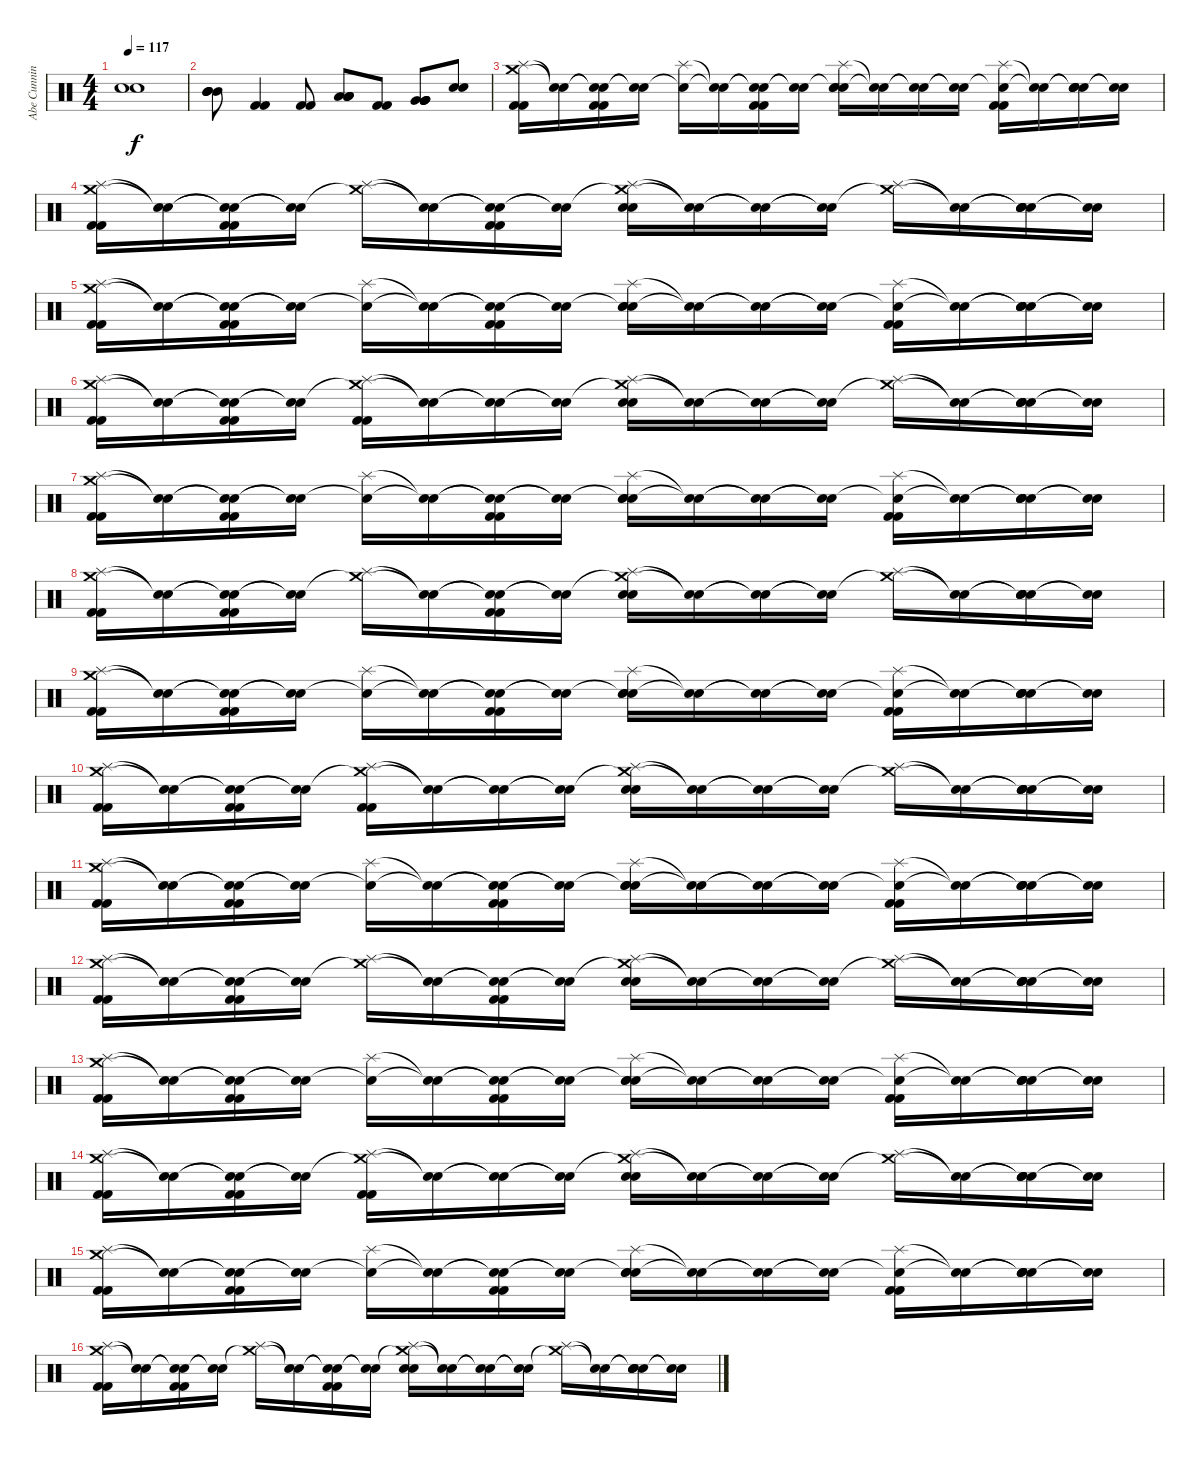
\track ("Abe Cunningham" "Abe Cunnin") {instrument percussion}
\staff {score}
\articulation defaults
\ts (4 4)
\tempo 117
\clef neutral
\ks c
("Snare (hit)"{t} "Snare (hit)"{t}).1{dy f} |
("Mid Tom (hit)" "Mid Tom (hit)" "Mid Tom (hit)" "Mid Tom (hit)").8 ("Kick (hit) 2" "Kick (hit) 2").4 ("Kick (hit) 2" "Kick (hit) 2").8 ("Low Tom (hit)" "Low Tom (hit)" "Low Tom (hit)" "Low Tom (hit)").8 ("Kick (hit) 2" "Kick (hit) 2").8 ("Very Low Tom (hit)" "Very Low Tom (hit)" "Very Low Tom (hit)" "Very Low Tom (hit)").8 ("Electric Snare (hit)" "Electric Snare (hit)").8 |
("Splash (hit)" "Crash medium (hit)" "Kick (hit) 2" "Kick (hit) 2").16 ("Snare (hit)"{t} "Snare (hit)"{t}).16 ("Snare (hit)"{t} "Snare (hit)"{t} "Kick (hit) 2" "Kick (hit) 2").16 ("Snare (hit)"{t} "Snare (hit)"{t}).16 ("Splash (hit)" "Snare (hit)"{t}).16 ("Snare (hit)"{t} "Snare (hit)"{t}).16 ("Snare (hit)"{t} "Snare (hit)"{t} "Kick (hit) 2" "Kick (hit) 2").16 ("Snare (hit)"{t} "Snare (hit)"{t}).16 ("Splash (hit)" "Snare (hit)"{t} "Electric Snare (hit)" "Electric Snare (hit)").16 ("Snare (hit)"{t} "Snare (hit)"{t}).16 ("Snare (hit)"{t} "Snare (hit)"{t}).16 ("Snare (hit)"{t} "Snare (hit)"{t}).16 ("Splash (hit)" "Snare (hit)"{t} "Kick (hit) 2" "Kick (hit) 2").16 ("Snare (hit)"{t} "Snare (hit)"{t}).16 ("Snare (hit)"{t} "Snare (hit)"{t} "Electric Snare (hit)" "Electric Snare (hit)").16 ("Snare (hit)"{t} "Snare (hit)"{t}).16 |
("Splash (hit)" "Crash medium (hit)" "Kick (hit) 2" "Kick (hit) 2").16 ("Snare (hit)"{t} "Snare (hit)"{t}).16 ("Snare (hit)"{t} "Snare (hit)"{t} "Kick (hit) 2" "Kick (hit) 2").16 ("Snare (hit)"{t} "Snare (hit)"{t}).16 ("Splash (hit)" "Crash medium (hit)"{t}).16 ("Snare (hit)"{t} "Snare (hit)"{t}).16 ("Snare (hit)"{t} "Snare (hit)"{t} "Kick (hit) 2" "Kick (hit) 2").16 ("Snare (hit)"{t} "Snare (hit)"{t}).16 ("Splash (hit)" "Crash medium (hit)"{t} "Electric Snare (hit)" "Electric Snare (hit)").16 ("Snare (hit)"{t} "Snare (hit)"{t}).16 ("Snare (hit)"{t} "Snare (hit)"{t}).16 ("Snare (hit)"{t} "Snare (hit)"{t}).16 ("Splash (hit)" "Crash medium (hit)"{t}).16 ("Snare (hit)"{t} "Snare (hit)"{t}).16 ("Snare (hit)"{t} "Snare (hit)"{t} "Electric Snare (hit)" "Electric Snare (hit)").16 ("Snare (hit)"{t} "Snare (hit)"{t}).16 |
("Splash (hit)" "Crash medium (hit)" "Kick (hit) 2" "Kick (hit) 2").16 ("Snare (hit)"{t} "Snare (hit)"{t}).16 ("Snare (hit)"{t} "Snare (hit)"{t} "Kick (hit) 2" "Kick (hit) 2").16 ("Snare (hit)"{t} "Snare (hit)"{t}).16 ("Splash (hit)" "Snare (hit)"{t}).16 ("Snare (hit)"{t} "Snare (hit)"{t}).16 ("Snare (hit)"{t} "Snare (hit)"{t} "Kick (hit) 2" "Kick (hit) 2").16 ("Snare (hit)"{t} "Snare (hit)"{t}).16 ("Splash (hit)" "Snare (hit)"{t} "Electric Snare (hit)" "Electric Snare (hit)").16 ("Snare (hit)"{t} "Snare (hit)"{t}).16 ("Snare (hit)"{t} "Snare (hit)"{t}).16 ("Snare (hit)"{t} "Snare (hit)"{t}).16 ("Splash (hit)" "Snare (hit)"{t} "Kick (hit) 2" "Kick (hit) 2").16 ("Snare (hit)"{t} "Snare (hit)"{t}).16 ("Snare (hit)"{t} "Snare (hit)"{t} "Electric Snare (hit)" "Electric Snare (hit)").16 ("Snare (hit)"{t} "Snare (hit)"{t}).16 |
("Splash (hit)" "Crash medium (hit)" "Kick (hit) 2" "Kick (hit) 2").16 ("Snare (hit)"{t} "Snare (hit)"{t}).16 ("Snare (hit)"{t} "Snare (hit)"{t} "Kick (hit) 2" "Kick (hit) 2").16 ("Snare (hit)"{t} "Snare (hit)"{t}).16 ("Splash (hit)" "Crash medium (hit)"{t} "Kick (hit) 2" "Kick (hit) 2").16 ("Snare (hit)"{t} "Snare (hit)"{t}).16 ("Snare (hit)"{t} "Snare (hit)"{t}).16 ("Snare (hit)"{t} "Snare (hit)"{t}).16 ("Splash (hit)" "Crash medium (hit)"{t} "Electric Snare (hit)" "Electric Snare (hit)").16 ("Snare (hit)"{t} "Snare (hit)"{t}).16 ("Snare (hit)"{t} "Snare (hit)"{t}).16 ("Snare (hit)"{t} "Snare (hit)"{t}).16 ("Splash (hit)" "Crash medium (hit)"{t}).16 ("Snare (hit)"{t} "Snare (hit)"{t}).16 ("Snare (hit)"{t} "Snare (hit)"{t} "Electric Snare (hit)" "Electric Snare (hit)").16 ("Snare (hit)"{t} "Snare (hit)"{t}).16 |
("Splash (hit)" "Crash medium (hit)" "Kick (hit) 2" "Kick (hit) 2").16 ("Snare (hit)"{t} "Snare (hit)"{t}).16 ("Snare (hit)"{t} "Snare (hit)"{t} "Kick (hit) 2" "Kick (hit) 2").16 ("Snare (hit)"{t} "Snare (hit)"{t}).16 ("Splash (hit)" "Snare (hit)"{t}).16 ("Snare (hit)"{t} "Snare (hit)"{t}).16 ("Snare (hit)"{t} "Snare (hit)"{t} "Kick (hit) 2" "Kick (hit) 2").16 ("Snare (hit)"{t} "Snare (hit)"{t}).16 ("Splash (hit)" "Snare (hit)"{t} "Electric Snare (hit)" "Electric Snare (hit)").16 ("Snare (hit)"{t} "Snare (hit)"{t}).16 ("Snare (hit)"{t} "Snare (hit)"{t}).16 ("Snare (hit)"{t} "Snare (hit)"{t}).16 ("Splash (hit)" "Snare (hit)"{t} "Kick (hit) 2" "Kick (hit) 2").16 ("Snare (hit)"{t} "Snare (hit)"{t}).16 ("Snare (hit)"{t} "Snare (hit)"{t} "Electric Snare (hit)" "Electric Snare (hit)").16 ("Snare (hit)"{t} "Snare (hit)"{t}).16 |
("Splash (hit)" "Crash medium (hit)" "Kick (hit) 2" "Kick (hit) 2").16 ("Snare (hit)"{t} "Snare (hit)"{t}).16 ("Snare (hit)"{t} "Snare (hit)"{t} "Kick (hit) 2" "Kick (hit) 2").16 ("Snare (hit)"{t} "Snare (hit)"{t}).16 ("Splash (hit)" "Crash medium (hit)"{t}).16 ("Snare (hit)"{t} "Snare (hit)"{t}).16 ("Snare (hit)"{t} "Snare (hit)"{t} "Kick (hit) 2" "Kick (hit) 2").16 ("Snare (hit)"{t} "Snare (hit)"{t}).16 ("Splash (hit)" "Crash medium (hit)"{t} "Electric Snare (hit)" "Electric Snare (hit)").16 ("Snare (hit)"{t} "Snare (hit)"{t}).16 ("Snare (hit)"{t} "Snare (hit)"{t}).16 ("Snare (hit)"{t} "Snare (hit)"{t}).16 ("Splash (hit)" "Crash medium (hit)"{t}).16 ("Snare (hit)"{t} "Snare (hit)"{t}).16 ("Snare (hit)"{t} "Snare (hit)"{t} "Electric Snare (hit)" "Electric Snare (hit)").16 ("Snare (hit)"{t} "Snare (hit)"{t}).16 |
("Splash (hit)" "Crash medium (hit)" "Kick (hit) 2" "Kick (hit) 2").16 ("Snare (hit)"{t} "Snare (hit)"{t}).16 ("Snare (hit)"{t} "Snare (hit)"{t} "Kick (hit) 2" "Kick (hit) 2").16 ("Snare (hit)"{t} "Snare (hit)"{t}).16 ("Splash (hit)" "Snare (hit)"{t}).16 ("Snare (hit)"{t} "Snare (hit)"{t}).16 ("Snare (hit)"{t} "Snare (hit)"{t} "Kick (hit) 2" "Kick (hit) 2").16 ("Snare (hit)"{t} "Snare (hit)"{t}).16 ("Splash (hit)" "Snare (hit)"{t} "Electric Snare (hit)" "Electric Snare (hit)").16 ("Snare (hit)"{t} "Snare (hit)"{t}).16 ("Snare (hit)"{t} "Snare (hit)"{t}).16 ("Snare (hit)"{t} "Snare (hit)"{t}).16 ("Splash (hit)" "Snare (hit)"{t} "Kick (hit) 2" "Kick (hit) 2").16 ("Snare (hit)"{t} "Snare (hit)"{t}).16 ("Snare (hit)"{t} "Snare (hit)"{t} "Electric Snare (hit)" "Electric Snare (hit)").16 ("Snare (hit)"{t} "Snare (hit)"{t}).16 |
("Splash (hit)" "Crash medium (hit)" "Kick (hit) 2" "Kick (hit) 2").16 ("Snare (hit)"{t} "Snare (hit)"{t}).16 ("Snare (hit)"{t} "Snare (hit)"{t} "Kick (hit) 2" "Kick (hit) 2").16 ("Snare (hit)"{t} "Snare (hit)"{t}).16 ("Splash (hit)" "Crash medium (hit)"{t} "Kick (hit) 2" "Kick (hit) 2").16 ("Snare (hit)"{t} "Snare (hit)"{t}).16 ("Snare (hit)"{t} "Snare (hit)"{t}).16 ("Snare (hit)"{t} "Snare (hit)"{t}).16 ("Splash (hit)" "Crash medium (hit)"{t} "Electric Snare (hit)" "Electric Snare (hit)").16 ("Snare (hit)"{t} "Snare (hit)"{t}).16 ("Snare (hit)"{t} "Snare (hit)"{t}).16 ("Snare (hit)"{t} "Snare (hit)"{t}).16 ("Splash (hit)" "Crash medium (hit)"{t}).16 ("Snare (hit)"{t} "Snare (hit)"{t}).16 ("Snare (hit)"{t} "Snare (hit)"{t} "Electric Snare (hit)" "Electric Snare (hit)").16 ("Snare (hit)"{t} "Snare (hit)"{t}).16 |
("Splash (hit)" "Crash medium (hit)" "Kick (hit) 2" "Kick (hit) 2").16 ("Snare (hit)"{t} "Snare (hit)"{t}).16 ("Snare (hit)"{t} "Snare (hit)"{t} "Kick (hit) 2" "Kick (hit) 2").16 ("Snare (hit)"{t} "Snare (hit)"{t}).16 ("Splash (hit)" "Snare (hit)"{t}).16 ("Snare (hit)"{t} "Snare (hit)"{t}).16 ("Snare (hit)"{t} "Snare (hit)"{t} "Kick (hit) 2" "Kick (hit) 2").16 ("Snare (hit)"{t} "Snare (hit)"{t}).16 ("Splash (hit)" "Snare (hit)"{t} "Electric Snare (hit)" "Electric Snare (hit)").16 ("Snare (hit)"{t} "Snare (hit)"{t}).16 ("Snare (hit)"{t} "Snare (hit)"{t}).16 ("Snare (hit)"{t} "Snare (hit)"{t}).16 ("Splash (hit)" "Snare (hit)"{t} "Kick (hit) 2" "Kick (hit) 2").16 ("Snare (hit)"{t} "Snare (hit)"{t}).16 ("Snare (hit)"{t} "Snare (hit)"{t} "Electric Snare (hit)" "Electric Snare (hit)").16 ("Snare (hit)"{t} "Snare (hit)"{t}).16 |
("Splash (hit)" "Crash medium (hit)" "Kick (hit) 2" "Kick (hit) 2").16 ("Snare (hit)"{t} "Snare (hit)"{t}).16 ("Snare (hit)"{t} "Snare (hit)"{t} "Kick (hit) 2" "Kick (hit) 2").16 ("Snare (hit)"{t} "Snare (hit)"{t}).16 ("Splash (hit)" "Crash medium (hit)"{t}).16 ("Snare (hit)"{t} "Snare (hit)"{t}).16 ("Snare (hit)"{t} "Snare (hit)"{t} "Kick (hit) 2" "Kick (hit) 2").16 ("Snare (hit)"{t} "Snare (hit)"{t}).16 ("Splash (hit)" "Crash medium (hit)"{t} "Electric Snare (hit)" "Electric Snare (hit)").16 ("Snare (hit)"{t} "Snare (hit)"{t}).16 ("Snare (hit)"{t} "Snare (hit)"{t}).16 ("Snare (hit)"{t} "Snare (hit)"{t}).16 ("Splash (hit)" "Crash medium (hit)"{t}).16 ("Snare (hit)"{t} "Snare (hit)"{t}).16 ("Snare (hit)"{t} "Snare (hit)"{t} "Electric Snare (hit)" "Electric Snare (hit)").16 ("Snare (hit)"{t} "Snare (hit)"{t}).16 |
("Splash (hit)" "Crash medium (hit)" "Kick (hit) 2" "Kick (hit) 2").16 ("Snare (hit)"{t} "Snare (hit)"{t}).16 ("Snare (hit)"{t} "Snare (hit)"{t} "Kick (hit) 2" "Kick (hit) 2").16 ("Snare (hit)"{t} "Snare (hit)"{t}).16 ("Splash (hit)" "Snare (hit)"{t}).16 ("Snare (hit)"{t} "Snare (hit)"{t}).16 ("Snare (hit)"{t} "Snare (hit)"{t} "Kick (hit) 2" "Kick (hit) 2").16 ("Snare (hit)"{t} "Snare (hit)"{t}).16 ("Splash (hit)" "Snare (hit)"{t} "Electric Snare (hit)" "Electric Snare (hit)").16 ("Snare (hit)"{t} "Snare (hit)"{t}).16 ("Snare (hit)"{t} "Snare (hit)"{t}).16 ("Snare (hit)"{t} "Snare (hit)"{t}).16 ("Splash (hit)" "Snare (hit)"{t} "Kick (hit) 2" "Kick (hit) 2").16 ("Snare (hit)"{t} "Snare (hit)"{t}).16 ("Snare (hit)"{t} "Snare (hit)"{t} "Electric Snare (hit)" "Electric Snare (hit)").16 ("Snare (hit)"{t} "Snare (hit)"{t}).16 |
("Splash (hit)" "Crash medium (hit)" "Kick (hit) 2" "Kick (hit) 2").16 ("Snare (hit)"{t} "Snare (hit)"{t}).16 ("Snare (hit)"{t} "Snare (hit)"{t} "Kick (hit) 2" "Kick (hit) 2").16 ("Snare (hit)"{t} "Snare (hit)"{t}).16 ("Splash (hit)" "Crash medium (hit)"{t} "Kick (hit) 2" "Kick (hit) 2").16 ("Snare (hit)"{t} "Snare (hit)"{t}).16 ("Snare (hit)"{t} "Snare (hit)"{t}).16 ("Snare (hit)"{t} "Snare (hit)"{t}).16 ("Splash (hit)" "Crash medium (hit)"{t} "Electric Snare (hit)" "Electric Snare (hit)").16 ("Snare (hit)"{t} "Snare (hit)"{t}).16 ("Snare (hit)"{t} "Snare (hit)"{t}).16 ("Snare (hit)"{t} "Snare (hit)"{t}).16 ("Splash (hit)" "Crash medium (hit)"{t}).16 ("Snare (hit)"{t} "Snare (hit)"{t}).16 ("Snare (hit)"{t} "Snare (hit)"{t} "Electric Snare (hit)" "Electric Snare (hit)").16 ("Snare (hit)"{t} "Snare (hit)"{t}).16 |
("Splash (hit)" "Crash medium (hit)" "Kick (hit) 2" "Kick (hit) 2").16 ("Snare (hit)"{t} "Snare (hit)"{t}).16 ("Snare (hit)"{t} "Snare (hit)"{t} "Kick (hit) 2" "Kick (hit) 2").16 ("Snare (hit)"{t} "Snare (hit)"{t}).16 ("Splash (hit)" "Snare (hit)"{t}).16 ("Snare (hit)"{t} "Snare (hit)"{t}).16 ("Snare (hit)"{t} "Snare (hit)"{t} "Kick (hit) 2" "Kick (hit) 2").16 ("Snare (hit)"{t} "Snare (hit)"{t}).16 ("Splash (hit)" "Snare (hit)"{t} "Electric Snare (hit)" "Electric Snare (hit)").16 ("Snare (hit)"{t} "Snare (hit)"{t}).16 ("Snare (hit)"{t} "Snare (hit)"{t}).16 ("Snare (hit)"{t} "Snare (hit)"{t}).16 ("Splash (hit)" "Snare (hit)"{t} "Kick (hit) 2" "Kick (hit) 2").16 ("Snare (hit)"{t} "Snare (hit)"{t}).16 ("Snare (hit)"{t} "Snare (hit)"{t} "Electric Snare (hit)" "Electric Snare (hit)").16 ("Snare (hit)"{t} "Snare (hit)"{t}).16 |
("Splash (hit)" "Crash medium (hit)" "Kick (hit) 2" "Kick (hit) 2").16 ("Snare (hit)"{t} "Snare (hit)"{t}).16 ("Snare (hit)"{t} "Snare (hit)"{t} "Kick (hit) 2" "Kick (hit) 2").16 ("Snare (hit)"{t} "Snare (hit)"{t}).16 ("Splash (hit)" "Crash medium (hit)"{t}).16 ("Snare (hit)"{t} "Snare (hit)"{t}).16 ("Snare (hit)"{t} "Snare (hit)"{t} "Kick (hit) 2" "Kick (hit) 2").16 ("Snare (hit)"{t} "Snare (hit)"{t}).16 ("Splash (hit)" "Crash medium (hit)"{t} "Electric Snare (hit)" "Electric Snare (hit)").16 ("Snare (hit)"{t} "Snare (hit)"{t}).16 ("Snare (hit)"{t} "Snare (hit)"{t}).16 ("Snare (hit)"{t} "Snare (hit)"{t}).16 ("Splash (hit)" "Crash medium (hit)"{t}).16 ("Snare (hit)"{t} "Snare (hit)"{t}).16 ("Snare (hit)"{t} "Snare (hit)"{t} "Electric Snare (hit)" "Electric Snare (hit)").16 ("Snare (hit)"{t} "Snare (hit)"{t}).16
